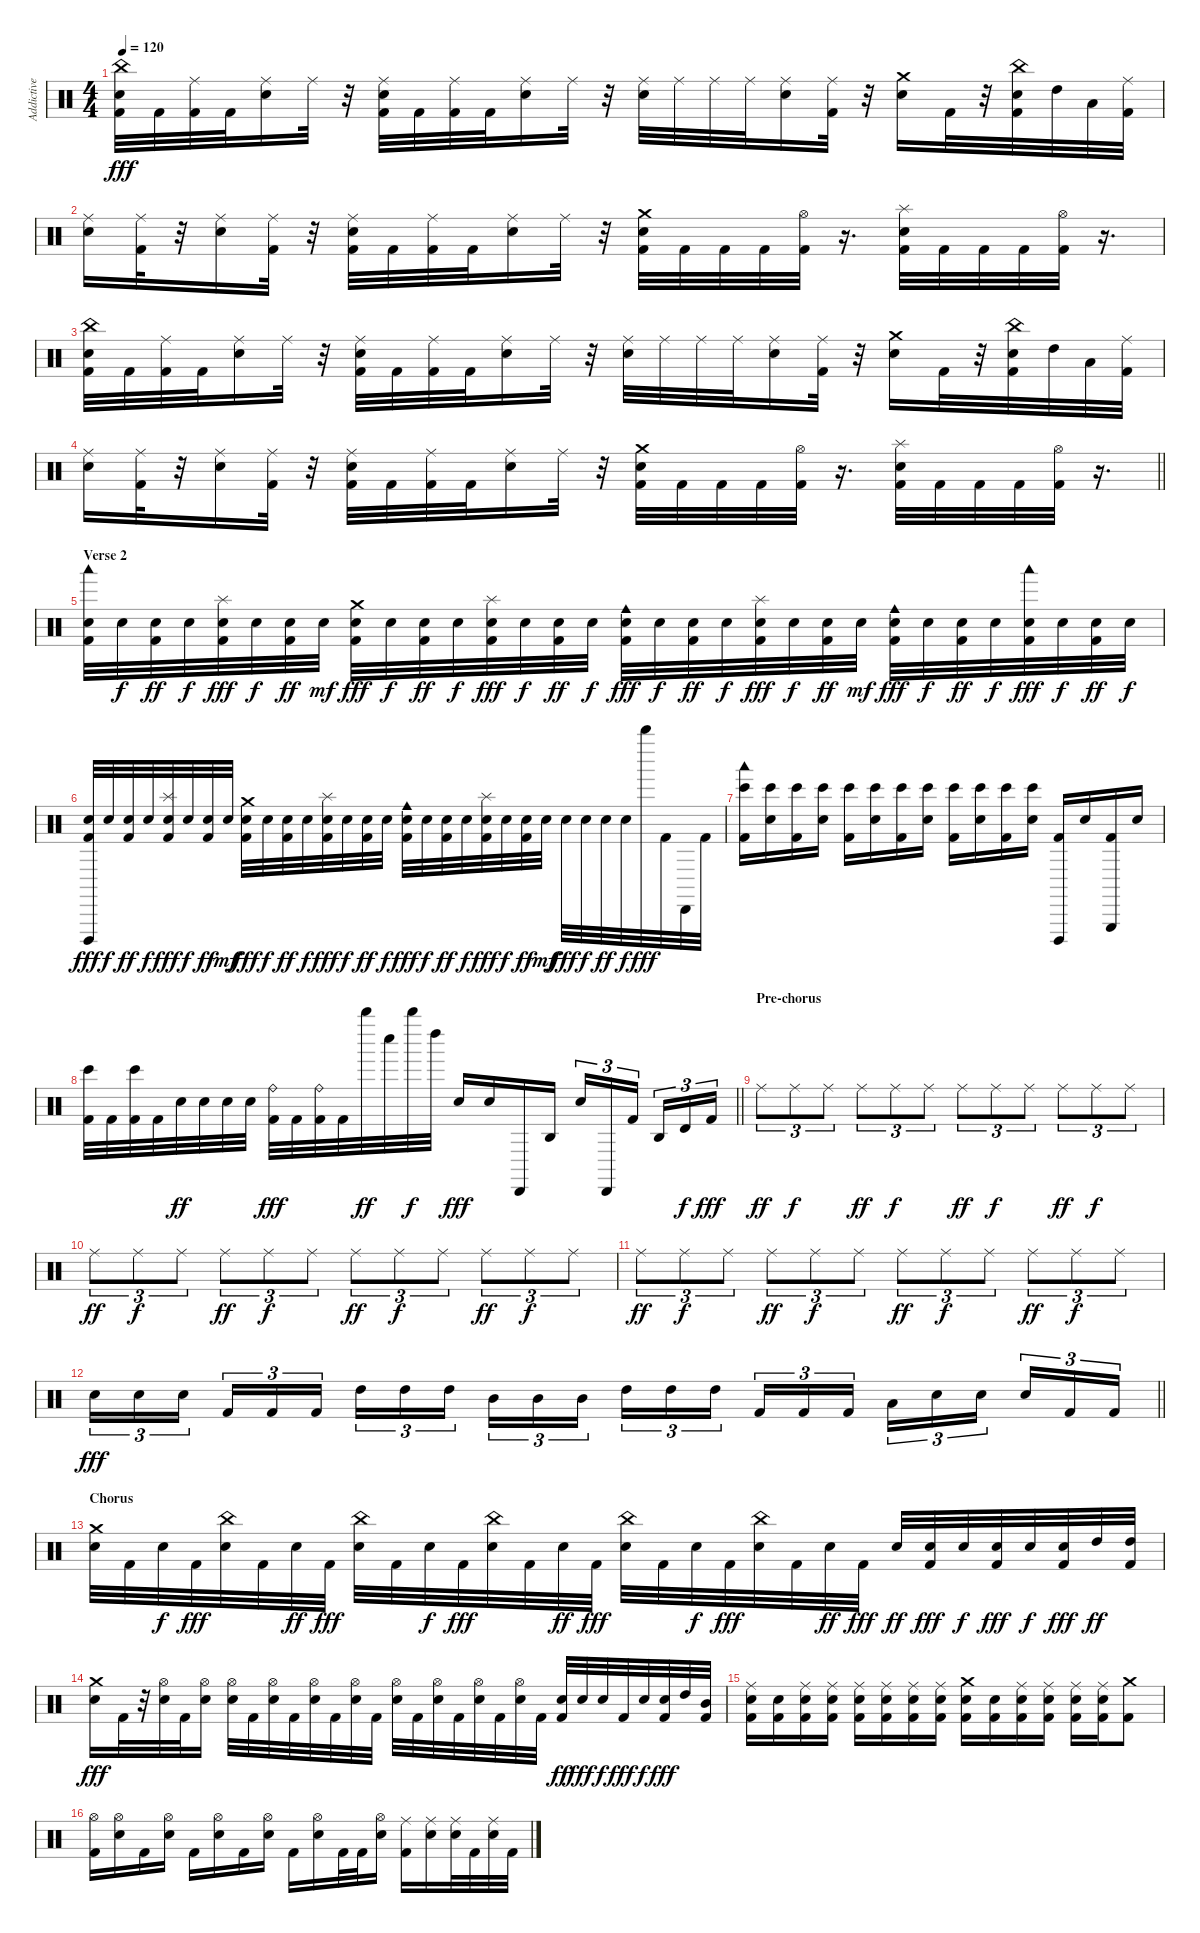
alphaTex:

\track ("Addictive Drums 07" "Addictive ") {instrument percussion}
\staff {score}
\articulation defaults
\ts (4 4)
\tempo 120
\clef neutral
\ks c
("Kick (hit) 2" "Snare (hit) 2" "China (hit)").32{dy fff} "Kick (hit) 2".32 ("Kick (hit) 2" "Ride (middle)").32 "Kick (hit) 2".32 ("Snare (hit) 2" "Ride (middle)").16 "Ride (middle)".32 r.32 ("Kick (hit) 2" "Snare (hit) 2" "Ride (middle)").32 "Kick (hit) 2".32 ("Kick (hit) 2" "Ride (middle)").32 "Kick (hit) 2".32 ("Snare (hit) 2" "Ride (middle)").16 "Ride (middle)".32 r.32 ("Snare (hit) 2" "Ride (middle)").32 "Ride (middle)".32 "Ride (middle)".32 "Ride (middle)".32 ("Snare (hit) 2" "Ride (middle)").16 ("Kick (hit) 2" "Ride (middle)").32 r.32 ("Snare (hit) 2" "Crash medium (hit)").16 "Kick (hit) 2".32 r.32 ("Kick (hit) 2" "Snare (hit) 2" "China (hit)").32 "High Tom (hit)".32 "Low Tom (hit)".32 ("Kick (hit) 2" "Ride (middle)").32 |
("Snare (hit) 2" "Ride (middle)").16 ("Kick (hit) 2" "Ride (middle)").32 r.32 ("Snare (hit) 2" "Ride (middle)").16 ("Kick (hit) 2" "Ride (middle)").32 r.32 ("Kick (hit) 2" "Snare (hit) 2" "Ride (middle)").32 "Kick (hit) 2".32 ("Kick (hit) 2" "Ride (middle)").32 "Kick (hit) 2".32 ("Snare (hit) 2" "Ride (middle)").16 "Ride (middle)".32 r.32 ("Kick (hit) 2" "Snare (hit) 2" "Crash medium (hit)").32 "Kick (hit) 2".32 "Kick (hit) 2".32 "Kick (hit) 2".32 ("Kick (hit) 2" "Hi-Hat (open)").32 r.16{d} ("Kick (hit) 2" "Snare (hit) 2" "Splash (hit)").32 "Kick (hit) 2".32 "Kick (hit) 2".32 "Kick (hit) 2".32 ("Kick (hit) 2" "Hi-Hat (open)").32 r.16{d} |
("Kick (hit) 2" "Snare (hit) 2" "China (hit)").32 "Kick (hit) 2".32 ("Kick (hit) 2" "Ride (middle)").32 "Kick (hit) 2".32 ("Snare (hit) 2" "Ride (middle)").16 "Ride (middle)".32 r.32 ("Kick (hit) 2" "Snare (hit) 2" "Ride (middle)").32 "Kick (hit) 2".32 ("Kick (hit) 2" "Ride (middle)").32 "Kick (hit) 2".32 ("Snare (hit) 2" "Ride (middle)").16 "Ride (middle)".32 r.32 ("Snare (hit) 2" "Ride (middle)").32 "Ride (middle)".32 "Ride (middle)".32 "Ride (middle)".32 ("Snare (hit) 2" "Ride (middle)").16 ("Kick (hit) 2" "Ride (middle)").32 r.32 ("Snare (hit) 2" "Crash medium (hit)").16 "Kick (hit) 2".32 r.32 ("Kick (hit) 2" "Snare (hit) 2" "China (hit)").32 "High Tom (hit)".32 "Low Tom (hit)".32 ("Kick (hit) 2" "Ride (middle)").32 |
\barLineRight lightlight
("Snare (hit) 2" "Ride (middle)").16 ("Kick (hit) 2" "Ride (middle)").32 r.32 ("Snare (hit) 2" "Ride (middle)").16 ("Kick (hit) 2" "Ride (middle)").32 r.32 ("Kick (hit) 2" "Snare (hit) 2" "Ride (middle)").32 "Kick (hit) 2".32 ("Kick (hit) 2" "Ride (middle)").32 "Kick (hit) 2".32 ("Snare (hit) 2" "Ride (middle)").16 "Ride (middle)".32 r.32 ("Kick (hit) 2" "Snare (hit) 2" "Crash medium (hit)").32 "Kick (hit) 2".32 "Kick (hit) 2".32 "Kick (hit) 2".32 ("Kick (hit) 2" "Hi-Hat (open)").32 r.16{d} ("Kick (hit) 2" "Snare (hit) 2" "Splash (hit)").32 "Kick (hit) 2".32 "Kick (hit) 2".32 "Kick (hit) 2".32 ("Kick (hit) 2" "Hi-Hat (open)").32 r.16{d} |
\section ("" "Verse 2")
("Kick (hit) 2" "Snare (hit) 2" "Woodblock low (hit)").32 "Snare (hit) 2".32{dy f} ("Kick (hit) 2" "Snare (hit) 2").32{dy ff} "Snare (hit) 2".32{dy f} ("Kick (hit) 2" "Snare (hit) 2" "Splash (hit)").32{dy fff} "Snare (hit) 2".32{dy f} ("Kick (hit) 2" "Snare (hit) 2").32{dy ff} "Snare (hit) 2".32{dy mf} ("Kick (hit) 2" "Snare (hit) 2" "Crash medium (hit)").32{dy fff} "Snare (hit) 2".32{dy f} ("Kick (hit) 2" "Snare (hit) 2").32{dy ff} "Snare (hit) 2".32{dy f} ("Kick (hit) 2" "Snare (hit) 2" "Splash (hit)").32{dy fff} "Snare (hit) 2".32{dy f} ("Kick (hit) 2" "Snare (hit) 2").32{dy ff} "Snare (hit) 2".32{dy f} ("Kick (hit) 2" "Snare (hit) 2" "Cowbell medium (hit)").32{dy fff} "Snare (hit) 2".32{dy f} ("Kick (hit) 2" "Snare (hit) 2").32{dy ff} "Snare (hit) 2".32{dy f} ("Kick (hit) 2" "Snare (hit) 2" "Splash (hit)").32{dy fff} "Snare (hit) 2".32{dy f} ("Kick (hit) 2" "Snare (hit) 2").32{dy ff} "Snare (hit) 2".32{dy mf} ("Kick (hit) 2" "Snare (hit) 2" "Cowbell medium (hit)").32{dy fff} "Snare (hit) 2".32{dy f} ("Kick (hit) 2" "Snare (hit) 2").32{dy ff} "Snare (hit) 2".32{dy f} ("Kick (hit) 2" "Snare (hit) 2" "Woodblock low (hit)").32{dy fff} "Snare (hit) 2".32{dy f} ("Kick (hit) 2" "Snare (hit) 2").32{dy ff} "Snare (hit) 2".32{dy f} |
("Kick (hit) 2" "Snare (hit) 2" "Cuica (open)").32{dy fff} "Snare (hit) 2".32{dy f} ("Kick (hit) 2" "Snare (hit) 2").32{dy ff} "Snare (hit) 2".32{dy f} ("Kick (hit) 2" "Snare (hit) 2" "Splash (hit)").32{dy fff} "Snare (hit) 2".32{dy f} ("Kick (hit) 2" "Snare (hit) 2").32{dy ff} "Snare (hit) 2".32{dy mf} ("Kick (hit) 2" "Snare (hit) 2" "Crash medium (hit)").32{dy fff} "Snare (hit) 2".32{dy f} ("Kick (hit) 2" "Snare (hit) 2").32{dy ff} "Snare (hit) 2".32{dy f} ("Kick (hit) 2" "Snare (hit) 2" "Splash (hit)").32{dy fff} "Snare (hit) 2".32{dy f} ("Kick (hit) 2" "Snare (hit) 2").32{dy ff} "Snare (hit) 2".32{dy f} ("Kick (hit) 2" "Snare (hit) 2" "Cowbell medium (hit)").32{dy fff} "Snare (hit) 2".32{dy f} ("Kick (hit) 2" "Snare (hit) 2").32{dy ff} "Snare (hit) 2".32{dy f} ("Kick (hit) 2" "Snare (hit) 2" "Splash (hit)").32{dy fff} "Snare (hit) 2".32{dy f} ("Kick (hit) 2" "Snare (hit) 2").32{dy ff} "Snare (hit) 2".32{dy mf} "Snare (hit) 2".32{dy fff} "Snare (hit) 2".32{dy f} "Snare (hit) 2".32{dy ff} "Snare (hit) 2".32{dy f} "Whistle high (hit)".32{dy fff} "Kick (hit) 2".32 "Cabasa (hit)".32 "Kick (hit) 2".32 |
("Kick (hit) 2" "Bongo High (hit)" "Woodblock low (hit)").16 ("Snare (hit) 2" "Bongo High (hit)").16 ("Kick (hit) 2" "Bongo High (hit)").16 ("Snare (hit) 2" "Bongo High (hit)").16 ("Kick (hit) 2" "Bongo High (hit)").16 ("Snare (hit) 2" "Bongo High (hit)").16 ("Kick (hit) 2" "Bongo High (hit)").16 ("Snare (hit) 2" "Bongo High (hit)").16 ("Kick (hit) 2" "Bongo High (hit)").16 ("Snare (hit) 2" "Bongo High (hit)").16 ("Kick (hit) 2" "Bongo High (hit)").16 ("Snare (hit) 2" "Bongo High (hit)").16 ("Kick (hit) 2" "Cuica (open)").16 "Snare (hit) 2".16 ("Kick (hit) 2" "Triangle (hit)").16 "Snare (hit) 2".16 |
\barLineRight lightlight
("Kick (hit) 2" "Bongo High (hit)").32 "Kick (hit) 2".32 ("Kick (hit) 2" "Bongo High (hit)").32 "Kick (hit) 2".32 "Snare (hit) 2".32{dy ff} "Snare (hit) 2".32 "Snare (hit) 2".32 "Snare (hit) 2".32 ("Kick (hit) 2" "Ride (bell)").32{dy fff} "Kick (hit) 2".32 ("Kick (hit) 2" "Ride (bell)").32 "Kick (hit) 2".32 "Whistle high (hit)".32{dy ff} "Whistle low (hit)".32 "Whistle high (hit)".32{dy f} "Left Maraca (hit)".32 "Snare (hit) 2".16{dy fff} "Snare (hit) 2".16 "Cabasa (hit)".16 "Agogo high (hit)".16 "Snare (hit) 2".16{tu (3 2)} "Cabasa (hit)".16{tu (3 2)} "Kick (hit) 2".16{tu (3 2) beam splitsecondary} "Agogo high (hit)".16{tu (3 2)} "Timbale high (hit)".16{tu (3 2) dy f} "Kick (hit) 2".16{tu (3 2) dy fff} |
\section ("" "Pre-chorus")
"Ride (middle)".8{tu (3 2) dy ff} "Ride (middle)".8{tu (3 2) dy f} "Ride (middle)".8{tu (3 2)} "Ride (middle)".8{tu (3 2) dy ff} "Ride (middle)".8{tu (3 2) dy f} "Ride (middle)".8{tu (3 2)} "Ride (middle)".8{tu (3 2) dy ff} "Ride (middle)".8{tu (3 2) dy f} "Ride (middle)".8{tu (3 2)} "Ride (middle)".8{tu (3 2) dy ff} "Ride (middle)".8{tu (3 2) dy f} "Ride (middle)".8{tu (3 2)} |
"Ride (middle)".8{tu (3 2) dy ff} "Ride (middle)".8{tu (3 2) dy f} "Ride (middle)".8{tu (3 2)} "Ride (middle)".8{tu (3 2) dy ff} "Ride (middle)".8{tu (3 2) dy f} "Ride (middle)".8{tu (3 2)} "Ride (middle)".8{tu (3 2) dy ff} "Ride (middle)".8{tu (3 2) dy f} "Ride (middle)".8{tu (3 2)} "Ride (middle)".8{tu (3 2) dy ff} "Ride (middle)".8{tu (3 2) dy f} "Ride (middle)".8{tu (3 2)} |
"Ride (middle)".8{tu (3 2) dy ff} "Ride (middle)".8{tu (3 2) dy f} "Ride (middle)".8{tu (3 2)} "Ride (middle)".8{tu (3 2) dy ff} "Ride (middle)".8{tu (3 2) dy f} "Ride (middle)".8{tu (3 2)} "Ride (middle)".8{tu (3 2) dy ff} "Ride (middle)".8{tu (3 2) dy f} "Ride (middle)".8{tu (3 2)} "Ride (middle)".8{tu (3 2) dy ff} "Ride (middle)".8{tu (3 2) dy f} "Ride (middle)".8{tu (3 2)} |
\barLineRight lightlight "Snare (hit) 2".16{tu (3 2) dy fff} "Snare (hit) 2".16{tu (3 2)} "Snare (hit) 2".16{tu (3 2) beam splitsecondary} "Kick (hit) 2".16{tu (3 2)} "Kick (hit) 2".16{tu (3 2)} "Kick (hit) 2".16{tu (3 2)} "High Tom (hit)".16{tu (3 2)} "High Tom (hit)".16{tu (3 2)} "High Tom (hit)".16{tu (3 2) beam splitsecondary} "Mid Tom (hit)".16{tu (3 2)} "Mid Tom (hit)".16{tu (3 2)} "Mid Tom (hit)".16{tu (3 2)} "High Tom (hit)".16{tu (3 2)} "High Tom (hit)".16{tu (3 2)} "High Tom (hit)".16{tu (3 2) beam splitsecondary} "Kick (hit) 2".16{tu (3 2)} "Kick (hit) 2".16{tu (3 2)} "Kick (hit) 2".16{tu (3 2)} "Low Tom (hit)".16{tu (3 2)} "Snare (hit) 2".16{tu (3 2)} "Snare (hit) 2".16{tu (3 2) beam splitsecondary} "Snare (hit) 2".16{tu (3 2)} "Kick (hit) 2".16{tu (3 2)} "Kick (hit) 2".16{tu (3 2)}
|
\section ("" "Chorus")
("Snare (hit) 2" "Crash medium (hit)").32 "Kick (hit) 2".32 "Snare (hit) 2".32{dy f} "Kick (hit) 2".32{dy fff} ("Snare (hit) 2" "China (hit)").32 "Kick (hit) 2".32 "Snare (hit) 2".32{dy ff} "Kick (hit) 2".32{dy fff} ("Snare (hit) 2" "China (hit)").32 "Kick (hit) 2".32 "Snare (hit) 2".32{dy f} "Kick (hit) 2".32{dy fff} ("Snare (hit) 2" "China (hit)").32 "Kick (hit) 2".32 "Snare (hit) 2".32{dy ff} "Kick (hit) 2".32{dy fff} ("Snare (hit) 2" "China (hit)").32 "Kick (hit) 2".32 "Snare (hit) 2".32{dy f} "Kick (hit) 2".32{dy fff} ("Snare (hit) 2" "China (hit)").32 "Kick (hit) 2".32 "Snare (hit) 2".32{dy ff} "Kick (hit) 2".32{dy fff} "Snare (hit) 2".32{dy ff} ("Kick (hit) 2" "Snare (hit) 2").32{dy fff} "Snare (hit) 2".32{dy f} ("Kick (hit) 2" "Snare (hit) 2").32{dy fff} "Snare (hit) 2".32{dy f} ("Kick (hit) 2" "Snare (hit) 2").32{dy fff} "High Tom (hit)".32{dy ff} ("Kick (hit) 2" "High Tom (hit)").32 |
("Snare (hit) 2" "Crash medium (hit)").16{dy fff} "Kick (hit) 2".32 r.32 ("Snare (hit) 2" "Hi-Hat (open)").32 "Kick (hit) 2".32 ("Snare (hit) 2" "Hi-Hat (open)").16 ("Snare (hit) 2" "Hi-Hat (open)").32 "Kick (hit) 2".32 ("Snare (hit) 2" "Hi-Hat (open)").32 "Kick (hit) 2".32 ("Snare (hit) 2" "Hi-Hat (open)").32 "Kick (hit) 2".32 ("Snare (hit) 2" "Hi-Hat (open)").32 "Kick (hit) 2".32 ("Snare (hit) 2" "Hi-Hat (open)").32 "Kick (hit) 2".32 ("Snare (hit) 2" "Hi-Hat (open)").32 "Kick (hit) 2".32 ("Snare (hit) 2" "Hi-Hat (open)").32 "Kick (hit) 2".32 ("Snare (hit) 2" "Hi-Hat (open)").32 "Kick (hit) 2".32 ("Kick (hit) 2" "Snare (hit) 2").32{dy ff} "Snare (hit) 2".32{dy fff} "Snare (hit) 2".32{dy f} "Kick (hit) 2".32{dy fff} "Snare (hit) 2".32{dy f} ("Kick (hit) 2" "Snare (hit) 2").32{dy fff} "High Tom (hit)".32 ("Kick (hit) 2" "Mid Tom (hit)").32 |
("Kick (hit) 2" "Snare (hit) 2" "Ride (middle)").16 ("Kick (hit) 2" "Snare (hit) 2").16 ("Kick (hit) 2" "Snare (hit) 2" "Ride (middle)").16 ("Kick (hit) 2" "Snare (hit) 2" "Ride (middle)").16 ("Kick (hit) 2" "Snare (hit) 2" "Ride (middle)").16 ("Kick (hit) 2" "Snare (hit) 2" "Ride (middle)").16 ("Kick (hit) 2" "Snare (hit) 2" "Ride (middle)").16 ("Kick (hit) 2" "Snare (hit) 2" "Ride (middle)").16 ("Kick (hit) 2" "Snare (hit) 2" "Crash medium (hit)").16 ("Kick (hit) 2" "Snare (hit) 2").16 ("Kick (hit) 2" "Snare (hit) 2" "Ride (middle)").16 ("Kick (hit) 2" "Snare (hit) 2" "Ride (middle)").16 ("Kick (hit) 2" "Snare (hit) 2" "Ride (middle)").16 ("Kick (hit) 2" "Snare (hit) 2" "Ride (middle)").16 ("Kick (hit) 2" "Crash medium (hit)").8 |
("Kick (hit) 2" "Hi-Hat (open)").16 ("Snare (hit) 2" "Hi-Hat (open)").16 "Kick (hit) 2".16 ("Snare (hit) 2" "Hi-Hat (open)").16 "Kick (hit) 2".16 ("Snare (hit) 2" "Hi-Hat (open)").16 "Kick (hit) 2".16 ("Snare (hit) 2" "Hi-Hat (open)").16 "Kick (hit) 2".16 ("Snare (hit) 2" "Hi-Hat (open)").16 "Kick (hit) 2".32 "Kick (hit) 2".32 ("Snare (hit) 2" "Hi-Hat (open)").16 ("Kick (hit) 2" "Ride (middle)").16 ("Snare (hit) 2" "Ride (middle)").16 ("Snare (hit) 2" "Ride (middle)").32 "Kick (hit) 2".32 ("Snare (hit) 2" "Ride (middle)").32 "Kick (hit) 2".32
